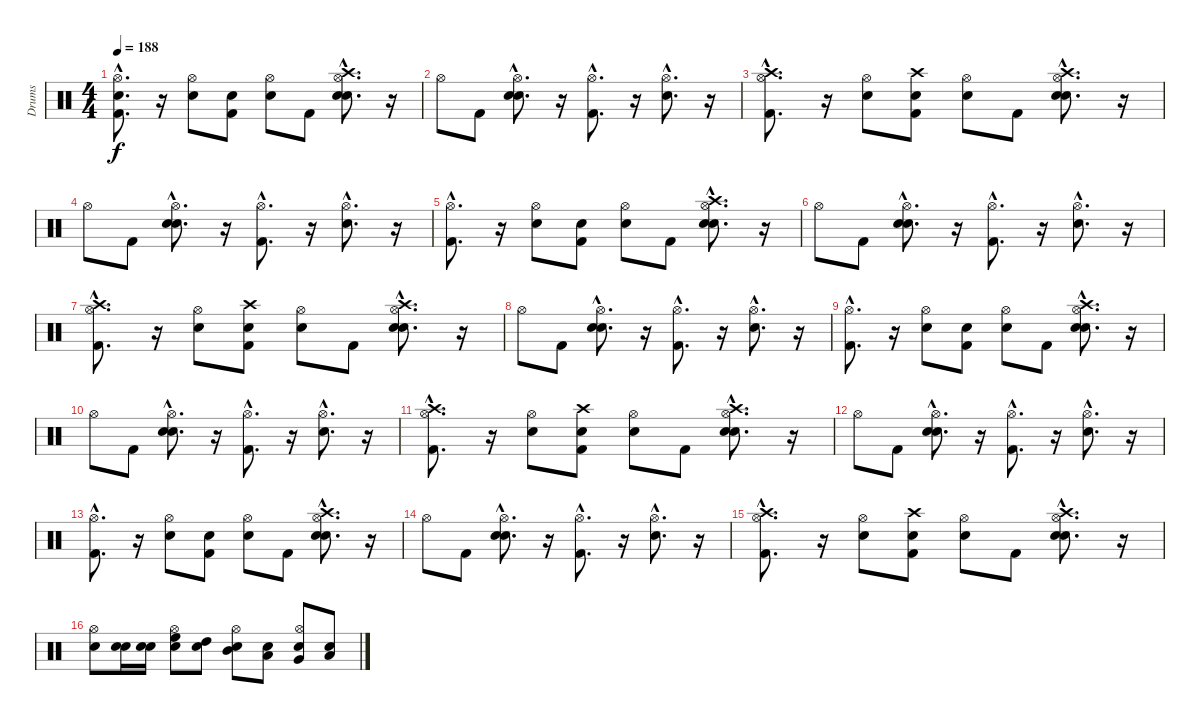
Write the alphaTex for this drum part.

\track ("Drums" "Drums") {instrument percussion}
\staff {score}
\articulation defaults
\ts (4 4)
\tempo 188
\clef neutral
\ks c
("Snare (hit)"{hac} "Kick (hit) 2"{hac} "Hi-Hat (open)"{hac}).8{d dy f} r.16 ("Snare (hit) 2" "Hi-Hat (open)").8 ("Snare (hit)" "Kick (hit) 2").8 ("Snare (hit)" "Hi-Hat (open)").8 "Kick (hit) 2".8 ("Snare (hit)"{hac} "Snare (hit) 2"{hac} "Hi-Hat (open)"{hac} "Crash high (hit)"{hac}).8{d} r.16 |
"Hi-Hat (open)".8 "Kick (hit) 2".8 ("Snare (hit)"{hac} "Snare (hit) 2"{hac} "Hi-Hat (open)"{hac}).8{d} r.16 ("Kick (hit) 2"{hac} "Hi-Hat (open)"{hac}).8{d} r.16 ("Snare (hit) 2"{hac} "Hi-Hat (open)"{hac}).8{d} r.16 |
("Kick (hit) 2"{hac} "Hi-Hat (open)"{hac} "Crash high (hit)"{hac}).8{d} r.16 ("Snare (hit) 2" "Hi-Hat (open)").8 ("Snare (hit)" "Kick (hit) 2" "Crash high (hit)").8 ("Snare (hit)" "Hi-Hat (open)").8 "Kick (hit) 2".8 ("Snare (hit)"{hac} "Snare (hit) 2"{hac} "Hi-Hat (open)"{hac} "Crash high (hit)"{hac}).8{d} r.16 |
"Hi-Hat (open)".8 "Kick (hit) 2".8 ("Snare (hit)"{hac} "Snare (hit) 2"{hac} "Hi-Hat (open)"{hac}).8{d} r.16 ("Kick (hit) 2"{hac} "Hi-Hat (open)"{hac}).8{d} r.16 ("Snare (hit) 2"{hac} "Hi-Hat (open)"{hac}).8{d} r.16 |
("Kick (hit) 2"{hac} "Hi-Hat (open)"{hac}).8{d} r.16 ("Snare (hit) 2" "Hi-Hat (open)").8 ("Snare (hit)" "Kick (hit) 2").8 ("Snare (hit)" "Hi-Hat (open)").8 "Kick (hit) 2".8 ("Snare (hit)"{hac} "Snare (hit) 2"{hac} "Hi-Hat (open)"{hac} "Crash high (hit)"{hac}).8{d} r.16 |
"Hi-Hat (open)".8 "Kick (hit) 2".8 ("Snare (hit)"{hac} "Snare (hit) 2"{hac} "Hi-Hat (open)"{hac}).8{d} r.16 ("Kick (hit) 2"{hac} "Hi-Hat (open)"{hac}).8{d} r.16 ("Snare (hit) 2"{hac} "Hi-Hat (open)"{hac}).8{d} r.16 |
("Kick (hit) 2"{hac} "Hi-Hat (open)"{hac} "Crash high (hit)"{hac}).8{d} r.16 ("Snare (hit) 2" "Hi-Hat (open)").8 ("Snare (hit)" "Kick (hit) 2" "Crash high (hit)").8 ("Snare (hit)" "Hi-Hat (open)").8 "Kick (hit) 2".8 ("Snare (hit)"{hac} "Snare (hit) 2"{hac} "Hi-Hat (open)"{hac} "Crash high (hit)"{hac}).8{d} r.16 |
"Hi-Hat (open)".8 "Kick (hit) 2".8 ("Snare (hit)"{hac} "Snare (hit) 2"{hac} "Hi-Hat (open)"{hac}).8{d} r.16 ("Kick (hit) 2"{hac} "Hi-Hat (open)"{hac}).8{d} r.16 ("Snare (hit) 2"{hac} "Hi-Hat (open)"{hac}).8{d} r.16 |
("Kick (hit) 2"{hac} "Hi-Hat (open)"{hac}).8{d} r.16 ("Snare (hit) 2" "Hi-Hat (open)").8 ("Snare (hit)" "Kick (hit) 2").8 ("Snare (hit)" "Hi-Hat (open)").8 "Kick (hit) 2".8 ("Snare (hit)"{hac} "Snare (hit) 2"{hac} "Hi-Hat (open)"{hac} "Crash high (hit)"{hac}).8{d} r.16 |
"Hi-Hat (open)".8 "Kick (hit) 2".8 ("Snare (hit)"{hac} "Snare (hit) 2"{hac} "Hi-Hat (open)"{hac}).8{d} r.16 ("Kick (hit) 2"{hac} "Hi-Hat (open)"{hac}).8{d} r.16 ("Snare (hit) 2"{hac} "Hi-Hat (open)"{hac}).8{d} r.16 |
("Kick (hit) 2"{hac} "Hi-Hat (open)"{hac} "Crash high (hit)"{hac}).8{d} r.16 ("Snare (hit) 2" "Hi-Hat (open)").8 ("Snare (hit)" "Kick (hit) 2" "Crash high (hit)").8 ("Snare (hit)" "Hi-Hat (open)").8 "Kick (hit) 2".8 ("Snare (hit)"{hac} "Snare (hit) 2"{hac} "Hi-Hat (open)"{hac} "Crash high (hit)"{hac}).8{d} r.16 |
"Hi-Hat (open)".8 "Kick (hit) 2".8 ("Snare (hit)"{hac} "Snare (hit) 2"{hac} "Hi-Hat (open)"{hac}).8{d} r.16 ("Kick (hit) 2"{hac} "Hi-Hat (open)"{hac}).8{d} r.16 ("Snare (hit) 2"{hac} "Hi-Hat (open)"{hac}).8{d} r.16 |
("Kick (hit) 2"{hac} "Hi-Hat (open)"{hac}).8{d} r.16 ("Snare (hit) 2" "Hi-Hat (open)").8 ("Snare (hit)" "Kick (hit) 2").8 ("Snare (hit)" "Hi-Hat (open)").8 "Kick (hit) 2".8 ("Snare (hit)"{hac} "Snare (hit) 2"{hac} "Hi-Hat (open)"{hac} "Crash high (hit)"{hac}).8{d} r.16 |
"Hi-Hat (open)".8 "Kick (hit) 2".8 ("Snare (hit)"{hac} "Snare (hit) 2"{hac} "Hi-Hat (open)"{hac}).8{d} r.16 ("Kick (hit) 2"{hac} "Hi-Hat (open)"{hac}).8{d} r.16 ("Snare (hit) 2"{hac} "Hi-Hat (open)"{hac}).8{d} r.16 |
("Kick (hit) 2"{hac} "Hi-Hat (open)"{hac} "Crash high (hit)"{hac}).8{d} r.16 ("Snare (hit) 2" "Hi-Hat (open)").8 ("Snare (hit)" "Kick (hit) 2" "Crash high (hit)").8 ("Snare (hit)" "Hi-Hat (open)").8 "Kick (hit) 2".8 ("Snare (hit)"{hac} "Snare (hit) 2"{hac} "Hi-Hat (open)"{hac} "Crash high (hit)"{hac}).8{d} r.16 |
("Snare (hit) 2" "Hi-Hat (open)").8 ("Snare (hit)" "Snare (hit) 2").16 ("Snare (hit)" "Snare (hit) 2").16 ("Snare (hit)" "Hi-Hat (open)" "High Floor Tom (hit)").8 ("Snare (hit)" "High Tom (hit)").8 ("Snare (hit)" "Hi-Hat (open)" "Mid Tom (hit)").8 ("Snare (hit)" "Low Tom (hit)").8 ("Snare (hit)" "Very Low Tom (hit)" "Hi-Hat (open)").8 ("Snare (hit)" "Low Floor Tom (hit)").8
